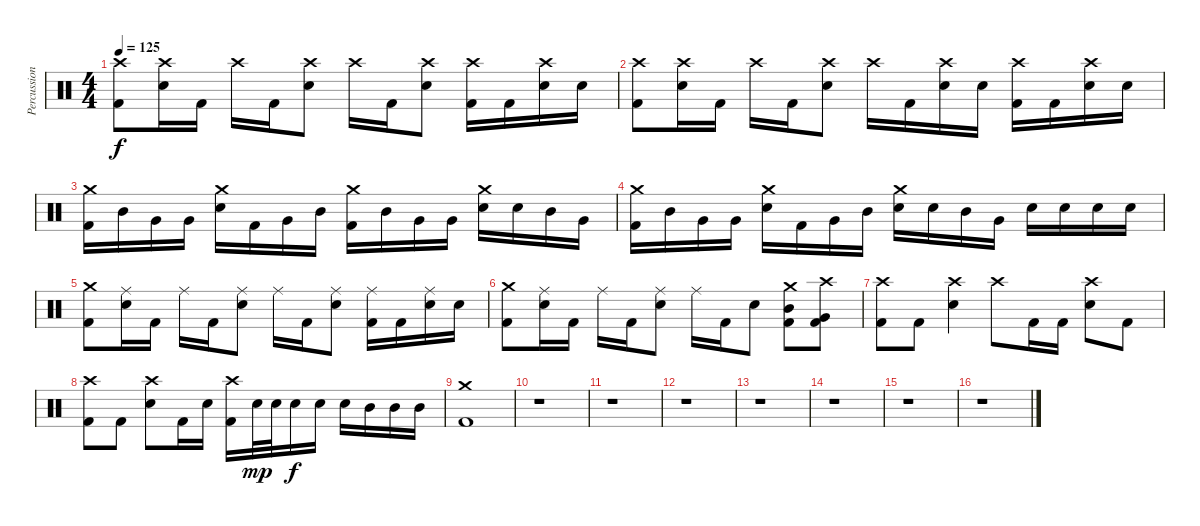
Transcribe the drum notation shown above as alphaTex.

\track ("Percussion" "Percussion") {instrument percussion}
\staff {score}
\articulation defaults
\ts (4 4)
\tempo 125
\clef neutral
\ks c
("Crash high (hit)" "Kick (hit) 2").8{dy f} ("Crash high (hit)" "Snare (hit) 2").16 "Kick (hit) 2".16 "Crash high (hit)".16 "Kick (hit) 2".16 ("Crash high (hit)" "Snare (hit) 2").8 "Crash high (hit)".16 "Kick (hit) 2".16 ("Crash high (hit)" "Snare (hit) 2").8 ("Crash high (hit)" "Kick (hit) 2").16 "Kick (hit) 2".16 ("Crash high (hit)" "Snare (hit) 2").16 "Snare (hit) 2".16 |
("Crash high (hit)" "Kick (hit) 2").8 ("Crash high (hit)" "Snare (hit) 2").16 "Kick (hit) 2".16 "Crash high (hit)".16 "Kick (hit) 2".16 ("Crash high (hit)" "Snare (hit) 2").8 "Crash high (hit)".16 "Kick (hit) 2".16 ("Crash high (hit)" "Snare (hit) 2").16 "Snare (hit) 2".16 ("Crash high (hit)" "Kick (hit) 2").16 "Kick (hit) 2".16 ("Crash high (hit)" "Snare (hit) 2").16 "Snare (hit) 2".16 |
("Crash medium (hit)" "Kick (hit) 2").16 "Mid Tom (hit)".16 "Very Low Tom (hit)".16 "Very Low Tom (hit)".16 ("Crash medium (hit)" "Snare (hit) 2").16 "Kick (hit) 2".16 "Very Low Tom (hit)".16 "Mid Tom (hit)".16 ("Crash medium (hit)" "Kick (hit) 2").16 "Mid Tom (hit)".16 "Very Low Tom (hit)".16 "Very Low Tom (hit)".16 ("Crash medium (hit)" "Snare (hit) 2").16 "Snare (hit) 2".16 "Mid Tom (hit)".16 "Very Low Tom (hit)".16 |
("Crash medium (hit)" "Kick (hit) 2").16 "Mid Tom (hit)".16 "Very Low Tom (hit)".16 "Very Low Tom (hit)".16 ("Crash medium (hit)" "Snare (hit) 2").16 "Kick (hit) 2".16 "Very Low Tom (hit)".16 "Mid Tom (hit)".16 ("Crash medium (hit)" "Snare (hit) 2").16 "Snare (hit) 2".16 "Mid Tom (hit)".16 "Very Low Tom (hit)".16 "Snare (hit) 2".16 "Snare (hit) 2".16 "Snare (hit) 2".16 "Snare (hit) 2".16 |
("Crash medium (hit)" "Kick (hit) 2").8 ("Ride (middle)" "Snare (hit) 2").16 "Kick (hit) 2".16 "Ride (middle)".16 "Kick (hit) 2".16 ("Ride (middle)" "Snare (hit) 2").8 "Ride (middle)".16 "Kick (hit) 2".16 ("Ride (middle)" "Snare (hit) 2").8 ("Ride (middle)" "Kick (hit) 2").16 "Kick (hit) 2".16 ("Ride (middle)" "Snare (hit) 2").16 "Snare (hit) 2".16 |
("Crash medium (hit)" "Kick (hit) 2").8 ("Ride (middle)" "Snare (hit) 2").16 "Kick (hit) 2".16 "Ride (middle)".16 "Kick (hit) 2".16 ("Ride (middle)" "Snare (hit) 2").8 "Ride (middle)".16 "Kick (hit) 2".16 "Snare (hit) 2".8 ("Crash medium (hit)" "Mid Tom (hit)" "Kick (hit) 2").8 ("Crash high (hit)" "Very Low Tom (hit)" "Kick (hit) 2").8 |
("Crash high (hit)" "Kick (hit) 2").8 "Kick (hit) 2".8 ("Crash high (hit)" "Snare (hit) 2").4 "Crash high (hit)".8 "Kick (hit) 2".16 "Kick (hit) 2".16 ("Crash high (hit)" "Snare (hit) 2").8 "Kick (hit) 2".8 |
("Crash high (hit)" "Kick (hit) 2").8 "Kick (hit) 2".8 ("Crash high (hit)" "Snare (hit) 2").8 "Kick (hit) 2".16 "Snare (hit) 2".16 ("Crash high (hit)" "Kick (hit) 2").16 "Snare (hit) 2".32{dy mp} "Snare (hit) 2".32 "Snare (hit) 2".16{dy f} "Snare (hit) 2".16 "Snare (hit) 2".16 "Mid Tom (hit)".16 "Mid Tom (hit)".16 "Mid Tom (hit)".16 |
("Crash medium (hit)" "Kick (hit) 2").1 |
r.1 |
r.1 |
r.1 |
r.1 |
r.1 |
r.1 |
r.1
